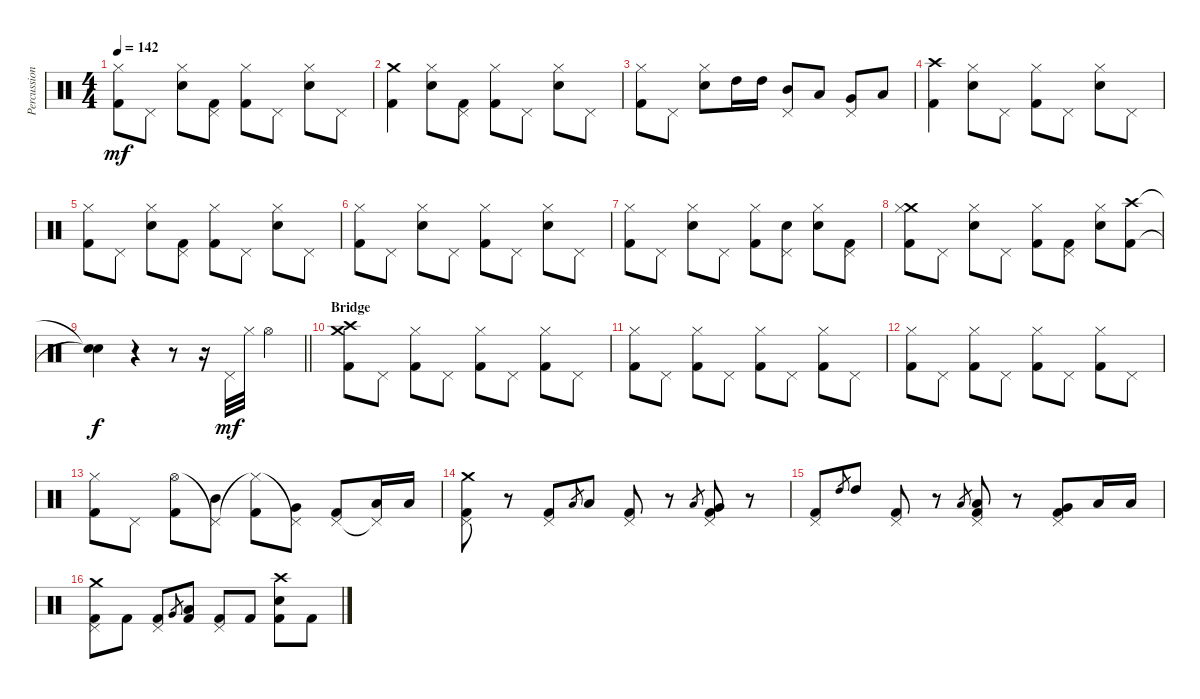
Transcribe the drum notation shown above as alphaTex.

\track ("Percussion" "Percussion") {instrument percussion}
\staff {score}
\articulation defaults
\ts (4 4)
\tempo 142
\clef neutral
\ks c
("Hi-Hat (closed)" "Kick (hit) 2").8{dy mf} "Pedal Hi-Hat (hit)".8 ("Snare (hit) 2" "Hi-Hat (closed)").8 ("Pedal Hi-Hat (hit)" "Kick (hit) 2").8 ("Hi-Hat (closed)" "Kick (hit) 2").8 "Pedal Hi-Hat (hit)".8 ("Snare (hit) 2" "Hi-Hat (closed)").8 "Pedal Hi-Hat (hit)".8 |
("Crash medium (hit)" "Kick (hit) 2").4 ("Snare (hit) 2" "Hi-Hat (closed)").8 ("Pedal Hi-Hat (hit)" "Kick (hit) 2").8 ("Hi-Hat (closed)" "Kick (hit) 2").8 "Pedal Hi-Hat (hit)".8 ("Snare (hit) 2" "Hi-Hat (closed)").8 "Pedal Hi-Hat (hit)".8 |
("Hi-Hat (closed)" "Kick (hit) 2").8 "Pedal Hi-Hat (hit)".8 ("Snare (hit) 2" "Hi-Hat (closed)").8 "High Tom (hit)".16 "High Tom (hit)".16 ("Mid Tom (hit)" "Pedal Hi-Hat (hit)").8 "Low Tom (hit)".8 ("Very Low Tom (hit)" "Pedal Hi-Hat (hit)").8 "Low Floor Tom (hit)".8 |
("Crash high (hit)" "Kick (hit) 2").4 ("Snare (hit) 2" "Hi-Hat (closed)").8 "Pedal Hi-Hat (hit)".8 ("Hi-Hat (closed)" "Kick (hit) 2").8 "Pedal Hi-Hat (hit)".8 ("Snare (hit) 2" "Hi-Hat (closed)").8 "Pedal Hi-Hat (hit)".8 |
("Hi-Hat (closed)" "Kick (hit) 2").8 "Pedal Hi-Hat (hit)".8 ("Snare (hit) 2" "Hi-Hat (closed)").8 ("Pedal Hi-Hat (hit)" "Kick (hit) 2").8 ("Hi-Hat (closed)" "Kick (hit) 2").8 "Pedal Hi-Hat (hit)".8 ("Snare (hit) 2" "Hi-Hat (closed)").8 "Pedal Hi-Hat (hit)".8 |
("Hi-Hat (closed)" "Kick (hit) 2").8 "Pedal Hi-Hat (hit)".8 ("Snare (hit) 2" "Hi-Hat (closed)").8 "Pedal Hi-Hat (hit)".8 ("Hi-Hat (closed)" "Kick (hit) 2").8 "Pedal Hi-Hat (hit)".8 ("Snare (hit) 2" "Hi-Hat (closed)").8 "Pedal Hi-Hat (hit)".8 |
("Hi-Hat (closed)" "Kick (hit) 2").8 "Pedal Hi-Hat (hit)".8 ("Snare (hit) 2" "Hi-Hat (closed)").8 "Pedal Hi-Hat (hit)".8 ("Hi-Hat (closed)" "Kick (hit) 2").8 ("Snare (hit) 2" "Pedal Hi-Hat (hit)").8 ("Snare (hit) 2" "Hi-Hat (closed)").8 ("Pedal Hi-Hat (hit)" "Kick (hit) 2").8 |
("Crash medium (hit)" "Hi-Hat (closed)" "Kick (hit) 2").8 "Pedal Hi-Hat (hit)".8 ("Snare (hit) 2" "Hi-Hat (closed)").8 "Pedal Hi-Hat (hit)".8 ("Hi-Hat (closed)" "Kick (hit) 2").8 ("Pedal Hi-Hat (hit)" "Kick (hit) 2").8 ("Snare (hit) 2" "Hi-Hat (closed)").8 ("Crash high (hit)" "Kick (hit) 2").8 |
\barLineRight lightlight
("Snare (hit)"{t} "Snare (hit)"{t}).4{dy f} r.4 r.8 r.16 "Pedal Hi-Hat (hit)".32{dy mf} "Hi-Hat (closed)".32 "Hi-Hat (open)".4 |
\section ("" "Bridge")
("Crash medium (hit)" "Crash high (hit)" "Kick (hit) 2").8 "Pedal Hi-Hat (hit)".8 ("Hi-Hat (closed)" "Kick (hit) 2").8 "Pedal Hi-Hat (hit)".8 ("Hi-Hat (closed)" "Kick (hit) 2").8 "Pedal Hi-Hat (hit)".8 ("Hi-Hat (closed)" "Kick (hit) 2").8 "Pedal Hi-Hat (hit)".8 |
("Hi-Hat (closed)" "Kick (hit) 2").8 "Pedal Hi-Hat (hit)".8 ("Hi-Hat (closed)" "Kick (hit) 2").8 "Pedal Hi-Hat (hit)".8 ("Hi-Hat (closed)" "Kick (hit) 2").8 "Pedal Hi-Hat (hit)".8 ("Hi-Hat (closed)" "Kick (hit) 2").8 "Pedal Hi-Hat (hit)".8 |
("Hi-Hat (closed)" "Kick (hit) 2").8 "Pedal Hi-Hat (hit)".8 ("Hi-Hat (closed)" "Kick (hit) 2").8 "Pedal Hi-Hat (hit)".8 ("Hi-Hat (closed)" "Kick (hit) 2").8 "Pedal Hi-Hat (hit)".8 ("Hi-Hat (closed)" "Kick (hit) 2").8 "Pedal Hi-Hat (hit)".8 |
("Hi-Hat (closed)" "Kick (hit) 2").8 "Pedal Hi-Hat (hit)".8 ("Hi-Hat (open)" "Kick (hit) 2").8 ("Pedal Hi-Hat (hit)"{t} "Mid Tom (hit)").8 ("Hi-Hat (closed)"{t} "Kick (hit) 2").8 ("Pedal Hi-Hat (hit)"{t} "Very Low Tom (hit)").8 ("Pedal Hi-Hat (hit)" "Kick (hit) 2").8 ("Pedal Hi-Hat (hit)"{t} "Low Floor Tom (hit)").16 "Low Floor Tom (hit)".16 |
("Crash medium (hit)" "Pedal Hi-Hat (hit)" "Kick (hit) 2").8 r.8 ("Pedal Hi-Hat (hit)" "Kick (hit) 2").8 "Low Floor Tom (hit)".8{gr} "Low Floor Tom (hit)".8 ("Pedal Hi-Hat (hit)" "Kick (hit) 2").8 r.8 "Low Floor Tom (hit)".8{gr} ("Pedal Hi-Hat (hit)" "Very Low Tom (hit)" "Kick (hit) 2").8 r.8 |
("Pedal Hi-Hat (hit)" "Kick (hit) 2").8 "High Tom (hit)".8{gr} "High Tom (hit)".8 ("Pedal Hi-Hat (hit)" "Kick (hit) 2").8 r.8 "Low Tom (hit)".8{gr} ("Pedal Hi-Hat (hit)" "Low Tom (hit)" "Kick (hit) 2").8 r.8 ("Pedal Hi-Hat (hit)" "Very Low Tom (hit)" "Kick (hit) 2").8 "Low Floor Tom (hit)".16 "Low Floor Tom (hit)".16 |
("Crash medium (hit)" "Pedal Hi-Hat (hit)" "Kick (hit) 2").8 "Kick (hit) 2".8 ("Pedal Hi-Hat (hit)" "Kick (hit) 2").8 "Very Low Tom (hit)".8{gr} ("Low Floor Tom (hit)" "Kick (hit) 2").8 ("Pedal Hi-Hat (hit)" "Kick (hit) 2").8 "Kick (hit) 2".8 ("Crash high (hit)" "Snare (hit) 2" "Kick (hit) 2").8 "Kick (hit) 2".8
